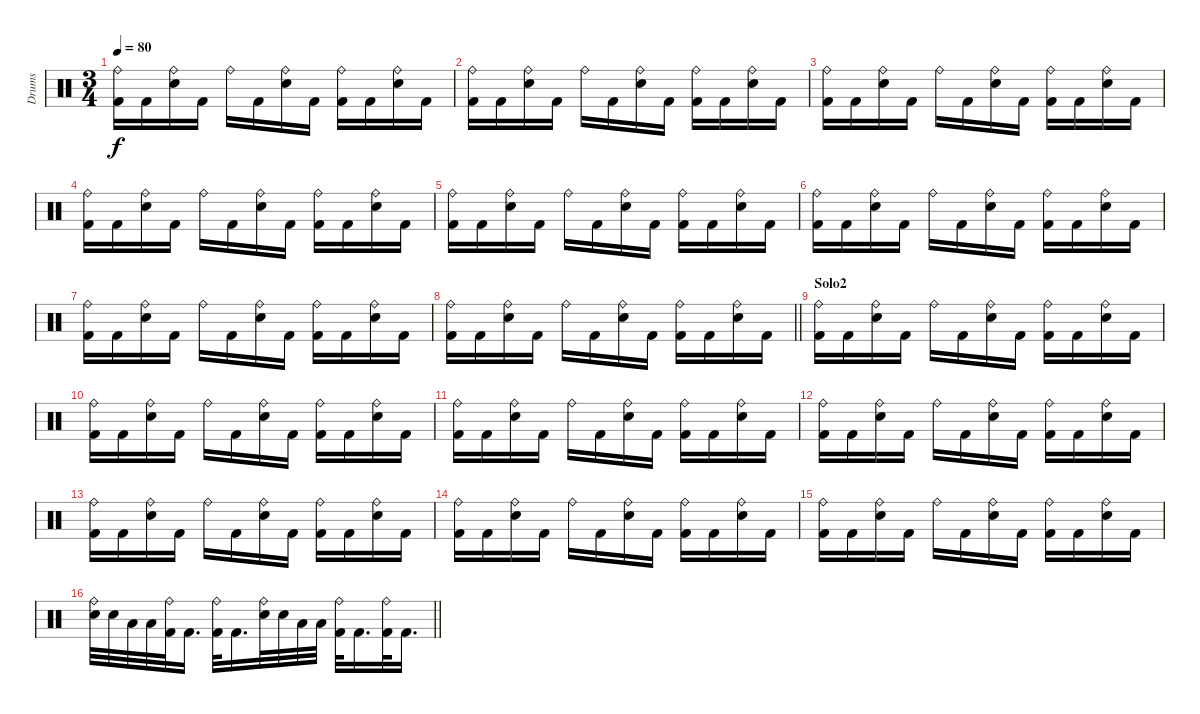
\track ("Drums" "Drums") {instrument percussion}
\staff {score}
\articulation defaults
\ts (3 4)
\tempo 80
\clef neutral
\ks c
("Ride (bell)" "Kick (hit) 2").16{dy f} "Kick (hit) 2".16 ("Ride (bell)" "Electric Snare (hit)").16 "Kick (hit) 2".16 "Ride (bell)".16 "Kick (hit) 2".16 ("Ride (bell)" "Electric Snare (hit)").16 "Kick (hit) 2".16 ("Ride (bell)" "Kick (hit) 2").16 "Kick (hit) 2".16 ("Ride (bell)" "Electric Snare (hit)").16 "Kick (hit) 2".16 |
("Ride (bell)" "Kick (hit) 2").16 "Kick (hit) 2".16 ("Ride (bell)" "Electric Snare (hit)").16 "Kick (hit) 2".16 "Ride (bell)".16 "Kick (hit) 2".16 ("Ride (bell)" "Electric Snare (hit)").16 "Kick (hit) 2".16 ("Ride (bell)" "Kick (hit) 2").16 "Kick (hit) 2".16 ("Ride (bell)" "Electric Snare (hit)").16 "Kick (hit) 2".16 |
("Ride (bell)" "Kick (hit) 2").16 "Kick (hit) 2".16 ("Ride (bell)" "Electric Snare (hit)").16 "Kick (hit) 2".16 "Ride (bell)".16 "Kick (hit) 2".16 ("Ride (bell)" "Electric Snare (hit)").16 "Kick (hit) 2".16 ("Ride (bell)" "Kick (hit) 2").16 "Kick (hit) 2".16 ("Ride (bell)" "Electric Snare (hit)").16 "Kick (hit) 2".16 |
("Ride (bell)" "Kick (hit) 2").16 "Kick (hit) 2".16 ("Ride (bell)" "Electric Snare (hit)").16 "Kick (hit) 2".16 "Ride (bell)".16 "Kick (hit) 2".16 ("Ride (bell)" "Electric Snare (hit)").16 "Kick (hit) 2".16 ("Ride (bell)" "Kick (hit) 2").16 "Kick (hit) 2".16 ("Ride (bell)" "Electric Snare (hit)").16 "Kick (hit) 2".16 |
("Ride (bell)" "Kick (hit) 2").16 "Kick (hit) 2".16 ("Ride (bell)" "Electric Snare (hit)").16 "Kick (hit) 2".16 "Ride (bell)".16 "Kick (hit) 2".16 ("Ride (bell)" "Electric Snare (hit)").16 "Kick (hit) 2".16 ("Ride (bell)" "Kick (hit) 2").16 "Kick (hit) 2".16 ("Ride (bell)" "Electric Snare (hit)").16 "Kick (hit) 2".16 |
("Ride (bell)" "Kick (hit) 2").16 "Kick (hit) 2".16 ("Ride (bell)" "Electric Snare (hit)").16 "Kick (hit) 2".16 "Ride (bell)".16 "Kick (hit) 2".16 ("Ride (bell)" "Electric Snare (hit)").16 "Kick (hit) 2".16 ("Ride (bell)" "Kick (hit) 2").16 "Kick (hit) 2".16 ("Ride (bell)" "Electric Snare (hit)").16 "Kick (hit) 2".16 |
("Ride (bell)" "Kick (hit) 2").16 "Kick (hit) 2".16 ("Ride (bell)" "Electric Snare (hit)").16 "Kick (hit) 2".16 "Ride (bell)".16 "Kick (hit) 2".16 ("Ride (bell)" "Electric Snare (hit)").16 "Kick (hit) 2".16 ("Ride (bell)" "Kick (hit) 2").16 "Kick (hit) 2".16 ("Ride (bell)" "Electric Snare (hit)").16 "Kick (hit) 2".16 |
\barLineRight lightlight
("Ride (bell)" "Kick (hit) 2").16 "Kick (hit) 2".16 ("Ride (bell)" "Electric Snare (hit)").16 "Kick (hit) 2".16 "Ride (bell)".16 "Kick (hit) 2".16 ("Ride (bell)" "Electric Snare (hit)").16 "Kick (hit) 2".16 ("Ride (bell)" "Kick (hit) 2").16 "Kick (hit) 2".16 ("Ride (bell)" "Electric Snare (hit)").16 "Kick (hit) 2".16 |
\section ("" "Solo2")
("Ride (bell)" "Kick (hit) 2").16 "Kick (hit) 2".16 ("Ride (bell)" "Electric Snare (hit)").16 "Kick (hit) 2".16 "Ride (bell)".16 "Kick (hit) 2".16 ("Ride (bell)" "Electric Snare (hit)").16 "Kick (hit) 2".16 ("Ride (bell)" "Kick (hit) 2").16 "Kick (hit) 2".16 ("Ride (bell)" "Electric Snare (hit)").16 "Kick (hit) 2".16 |
("Ride (bell)" "Kick (hit) 2").16 "Kick (hit) 2".16 ("Ride (bell)" "Electric Snare (hit)").16 "Kick (hit) 2".16 "Ride (bell)".16 "Kick (hit) 2".16 ("Ride (bell)" "Electric Snare (hit)").16 "Kick (hit) 2".16 ("Ride (bell)" "Kick (hit) 2").16 "Kick (hit) 2".16 ("Ride (bell)" "Electric Snare (hit)").16 "Kick (hit) 2".16 |
("Ride (bell)" "Kick (hit) 2").16 "Kick (hit) 2".16 ("Ride (bell)" "Electric Snare (hit)").16 "Kick (hit) 2".16 "Ride (bell)".16 "Kick (hit) 2".16 ("Ride (bell)" "Electric Snare (hit)").16 "Kick (hit) 2".16 ("Ride (bell)" "Kick (hit) 2").16 "Kick (hit) 2".16 ("Ride (bell)" "Electric Snare (hit)").16 "Kick (hit) 2".16 |
("Ride (bell)" "Kick (hit) 2").16 "Kick (hit) 2".16 ("Ride (bell)" "Electric Snare (hit)").16 "Kick (hit) 2".16 "Ride (bell)".16 "Kick (hit) 2".16 ("Ride (bell)" "Electric Snare (hit)").16 "Kick (hit) 2".16 ("Ride (bell)" "Kick (hit) 2").16 "Kick (hit) 2".16 ("Ride (bell)" "Electric Snare (hit)").16 "Kick (hit) 2".16 |
("Ride (bell)" "Kick (hit) 2").16 "Kick (hit) 2".16 ("Ride (bell)" "Electric Snare (hit)").16 "Kick (hit) 2".16 "Ride (bell)".16 "Kick (hit) 2".16 ("Ride (bell)" "Electric Snare (hit)").16 "Kick (hit) 2".16 ("Ride (bell)" "Kick (hit) 2").16 "Kick (hit) 2".16 ("Ride (bell)" "Electric Snare (hit)").16 "Kick (hit) 2".16 |
("Ride (bell)" "Kick (hit) 2").16 "Kick (hit) 2".16 ("Ride (bell)" "Electric Snare (hit)").16 "Kick (hit) 2".16 "Ride (bell)".16 "Kick (hit) 2".16 ("Ride (bell)" "Electric Snare (hit)").16 "Kick (hit) 2".16 ("Ride (bell)" "Kick (hit) 2").16 "Kick (hit) 2".16 ("Ride (bell)" "Electric Snare (hit)").16 "Kick (hit) 2".16 |
("Ride (bell)" "Kick (hit) 2").16 "Kick (hit) 2".16 ("Ride (bell)" "Electric Snare (hit)").16 "Kick (hit) 2".16 "Ride (bell)".16 "Kick (hit) 2".16 ("Ride (bell)" "Electric Snare (hit)").16 "Kick (hit) 2".16 ("Ride (bell)" "Kick (hit) 2").16 "Kick (hit) 2".16 ("Ride (bell)" "Electric Snare (hit)").16 "Kick (hit) 2".16 |
\barLineRight lightlight
("Ride (bell)" "Electric Snare (hit)").32 "Electric Snare (hit)".32 "Low Floor Tom (hit)".32 "Low Floor Tom (hit)".32 ("Ride (bell)" "Kick (hit) 2").32 "Kick (hit) 2".16{d} ("Ride (bell)" "Kick (hit) 2").32 "Kick (hit) 2".16{d} ("Ride (bell)" "Electric Snare (hit)").32 "Electric Snare (hit)".32 "Low Floor Tom (hit)".32 "Low Floor Tom (hit)".32 ("Ride (bell)" "Kick (hit) 2").32 "Kick (hit) 2".16{d} ("Ride (bell)" "Kick (hit) 2").32 "Kick (hit) 2".16{d}
